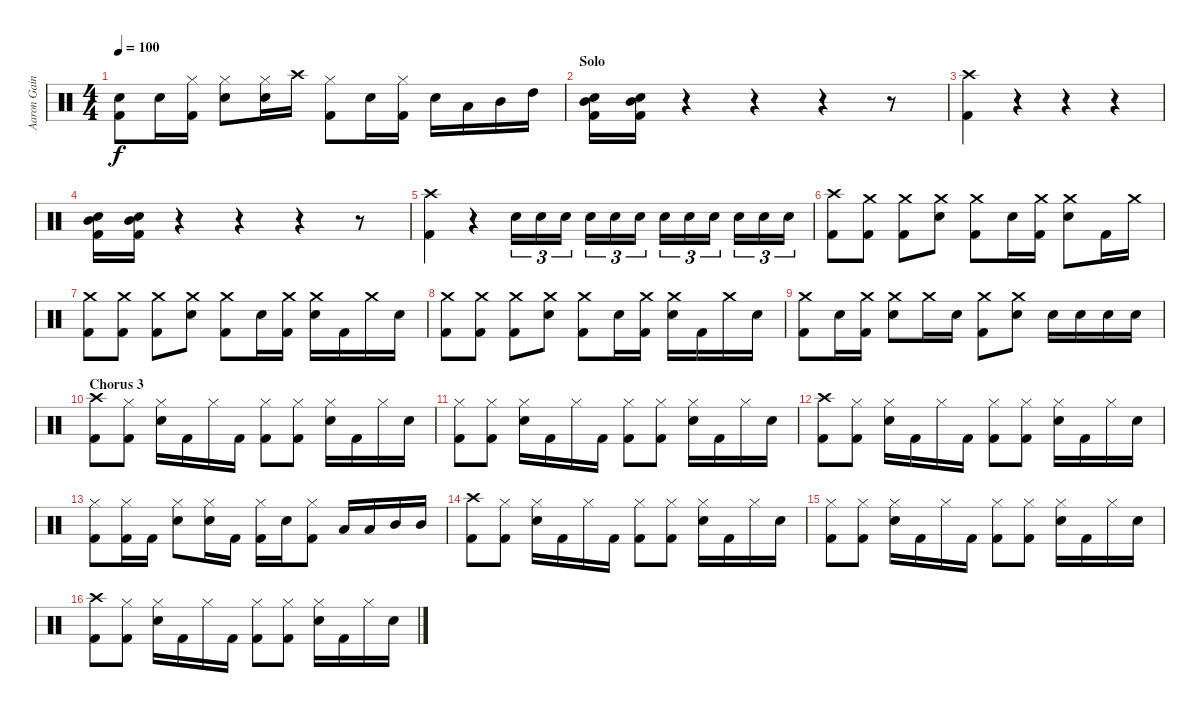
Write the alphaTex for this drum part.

\track ("Aaron Gainer" "Aaron Gain") {instrument percussion}
\staff {score}
\articulation defaults
\ts (4 4)
\tempo 100
\clef neutral
\ks c
("Snare (hit) 2" "Kick (hit) 2").8{dy f} "Snare (hit) 2".16 ("Hi-Hat (closed)" "Kick (hit) 2").16 ("Hi-Hat (closed)" "Snare (hit) 2").8 ("Hi-Hat (closed)" "Snare (hit) 2").16 "Crash high (hit)".16 ("Hi-Hat (closed)" "Kick (hit) 2").8 "Snare (hit) 2".16 ("Hi-Hat (closed)" "Kick (hit) 2").16 "Snare (hit) 2".16 "Low Tom (hit)".16 "Mid Tom (hit)".16 "High Tom (hit)".16 |
\section ("" "Solo")
("Snare (hit) 2" "Mid Tom (hit)" "Kick (hit) 2").16 ("Snare (hit) 2" "Mid Tom (hit)" "Kick (hit) 2").16 r.4 r.4 r.4 r.8 |
("Crash high (hit)" "Kick (hit) 2").4 r.4 r.4 r.4 |
("Snare (hit) 2" "Mid Tom (hit)" "Kick (hit) 2").16 ("Snare (hit) 2" "Mid Tom (hit)" "Kick (hit) 2").16 r.4 r.4 r.4 r.8 |
("Crash high (hit)" "Kick (hit) 2").4 r.4 "Snare (hit) 2".16{tu (3 2)} "Snare (hit) 2".16{tu (3 2)} "Snare (hit) 2".16{tu (3 2)} "Snare (hit) 2".16{tu (3 2)} "Snare (hit) 2".16{tu (3 2)} "Snare (hit) 2".16{tu (3 2)} "Snare (hit) 2".16{tu (3 2)} "Snare (hit) 2".16{tu (3 2)} "Snare (hit) 2".16{tu (3 2)} "Snare (hit) 2".16{tu (3 2)} "Snare (hit) 2".16{tu (3 2)} "Snare (hit) 2".16{tu (3 2)} |
("Crash high (hit)" "Kick (hit) 2").8 ("Crash medium (hit)" "Kick (hit) 2").8 ("Crash medium (hit)" "Kick (hit) 2").8 ("Crash medium (hit)" "Snare (hit) 2").8 ("Crash medium (hit)" "Kick (hit) 2").8 "Snare (hit) 2".16 ("Crash medium (hit)" "Kick (hit) 2").16 ("Crash medium (hit)" "Snare (hit) 2").8 "Kick (hit) 2".16 "Crash medium (hit)".16 |
("Crash medium (hit)" "Kick (hit) 2").8 ("Crash medium (hit)" "Kick (hit) 2").8 ("Crash medium (hit)" "Kick (hit) 2").8 ("Crash medium (hit)" "Snare (hit) 2").8 ("Crash medium (hit)" "Kick (hit) 2").8 "Snare (hit) 2".16 ("Crash medium (hit)" "Kick (hit) 2").16 ("Crash medium (hit)" "Snare (hit) 2").16 "Kick (hit) 2".16 "Crash medium (hit)".16 "Snare (hit) 2".16 |
("Crash medium (hit)" "Kick (hit) 2").8 ("Crash medium (hit)" "Kick (hit) 2").8 ("Crash medium (hit)" "Kick (hit) 2").8 ("Crash medium (hit)" "Snare (hit) 2").8 ("Crash medium (hit)" "Kick (hit) 2").8 "Snare (hit) 2".16 ("Crash medium (hit)" "Kick (hit) 2").16 ("Crash medium (hit)" "Snare (hit) 2").16 "Kick (hit) 2".16 "Crash medium (hit)".16 "Snare (hit) 2".16 |
("Crash medium (hit)" "Kick (hit) 2").8 "Snare (hit) 2".16 ("Crash medium (hit)" "Kick (hit) 2").16 ("Crash medium (hit)" "Snare (hit) 2").8 "Crash medium (hit)".16 "Snare (hit) 2".16 ("Crash medium (hit)" "Kick (hit) 2").8 ("Crash medium (hit)" "Snare (hit) 2").8 "Snare (hit) 2".16 "Snare (hit) 2".16 "Snare (hit) 2".16 "Snare (hit) 2".16 |
\section ("" "Chorus 3")
("Crash high (hit)" "Kick (hit) 2").8 ("Hi-Hat (closed)" "Kick (hit) 2").8 ("Hi-Hat (closed)" "Snare (hit) 2").16 "Kick (hit) 2".16 "Hi-Hat (closed)".16 "Kick (hit) 2".16 ("Hi-Hat (closed)" "Kick (hit) 2").8 ("Hi-Hat (closed)" "Kick (hit) 2").8 ("Hi-Hat (closed)" "Snare (hit) 2").16 "Kick (hit) 2".16 "Hi-Hat (closed)".16 "Snare (hit) 2".16 |
("Hi-Hat (closed)" "Kick (hit) 2").8 ("Hi-Hat (closed)" "Kick (hit) 2").8 ("Hi-Hat (closed)" "Snare (hit) 2").16 "Kick (hit) 2".16 "Hi-Hat (closed)".16 "Kick (hit) 2".16 ("Hi-Hat (closed)" "Kick (hit) 2").8 ("Hi-Hat (closed)" "Kick (hit) 2").8 ("Hi-Hat (closed)" "Snare (hit) 2").16 "Kick (hit) 2".16 "Hi-Hat (closed)".16 "Snare (hit) 2".16 |
("Crash high (hit)" "Kick (hit) 2").8 ("Hi-Hat (closed)" "Kick (hit) 2").8 ("Hi-Hat (closed)" "Snare (hit) 2").16 "Kick (hit) 2".16 "Hi-Hat (closed)".16 "Kick (hit) 2".16 ("Hi-Hat (closed)" "Kick (hit) 2").8 ("Hi-Hat (closed)" "Kick (hit) 2").8 ("Hi-Hat (closed)" "Snare (hit) 2").16 "Kick (hit) 2".16 "Hi-Hat (closed)".16 "Snare (hit) 2".16 |
("Hi-Hat (closed)" "Kick (hit) 2").8 ("Hi-Hat (closed)" "Kick (hit) 2").16 "Kick (hit) 2".16 ("Hi-Hat (closed)" "Snare (hit) 2").8 ("Hi-Hat (closed)" "Snare (hit) 2").16 "Kick (hit) 2".16 ("Hi-Hat (closed)" "Kick (hit) 2").16 "Snare (hit) 2".16 ("Hi-Hat (closed)" "Kick (hit) 2").8 "Low Tom (hit)".16 "Low Tom (hit)".16 "Mid Tom (hit)".16 "Mid Tom (hit)".16 |
("Crash high (hit)" "Kick (hit) 2").8 ("Hi-Hat (closed)" "Kick (hit) 2").8 ("Hi-Hat (closed)" "Snare (hit) 2").16 "Kick (hit) 2".16 "Hi-Hat (closed)".16 "Kick (hit) 2".16 ("Hi-Hat (closed)" "Kick (hit) 2").8 ("Hi-Hat (closed)" "Kick (hit) 2").8 ("Hi-Hat (closed)" "Snare (hit) 2").16 "Kick (hit) 2".16 "Hi-Hat (closed)".16 "Snare (hit) 2".16 |
("Hi-Hat (closed)" "Kick (hit) 2").8 ("Hi-Hat (closed)" "Kick (hit) 2").8 ("Hi-Hat (closed)" "Snare (hit) 2").16 "Kick (hit) 2".16 "Hi-Hat (closed)".16 "Kick (hit) 2".16 ("Hi-Hat (closed)" "Kick (hit) 2").8 ("Hi-Hat (closed)" "Kick (hit) 2").8 ("Hi-Hat (closed)" "Snare (hit) 2").16 "Kick (hit) 2".16 "Hi-Hat (closed)".16 "Snare (hit) 2".16 |
("Crash high (hit)" "Kick (hit) 2").8 ("Hi-Hat (closed)" "Kick (hit) 2").8 ("Hi-Hat (closed)" "Snare (hit) 2").16 "Kick (hit) 2".16 "Hi-Hat (closed)".16 "Kick (hit) 2".16 ("Hi-Hat (closed)" "Kick (hit) 2").8 ("Hi-Hat (closed)" "Kick (hit) 2").8 ("Hi-Hat (closed)" "Snare (hit) 2").16 "Kick (hit) 2".16 "Hi-Hat (closed)".16 "Snare (hit) 2".16
